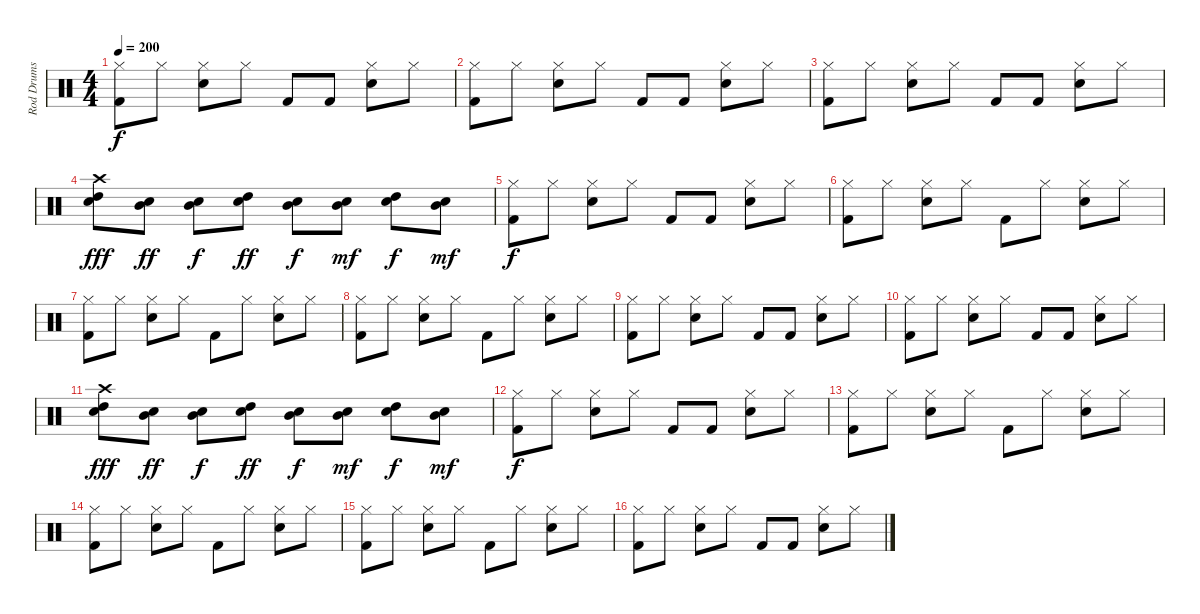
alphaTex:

\track ("Rod Drums" "Rod Drums") {instrument percussion}
\staff {score}
\articulation defaults
\ts (4 4)
\tempo 200
\clef neutral
\ks c
("Kick (hit) 2" "Hi-Hat (closed)").8{dy f} "Hi-Hat (closed)".8 ("Snare (hit) 2" "Hi-Hat (closed)").8 "Hi-Hat (closed)".8 "Kick (hit) 2".8 "Kick (hit) 2".8 ("Snare (hit) 2" "Hi-Hat (closed)").8 "Hi-Hat (closed)".8 |
("Kick (hit) 2" "Hi-Hat (closed)").8 "Hi-Hat (closed)".8 ("Snare (hit) 2" "Hi-Hat (closed)").8 "Hi-Hat (closed)".8 "Kick (hit) 2".8 "Kick (hit) 2".8 ("Snare (hit) 2" "Hi-Hat (closed)").8 "Hi-Hat (closed)".8 |
("Kick (hit) 2" "Hi-Hat (closed)").8 "Hi-Hat (closed)".8 ("Snare (hit) 2" "Hi-Hat (closed)").8 "Hi-Hat (closed)".8 "Kick (hit) 2".8 "Kick (hit) 2".8 ("Snare (hit) 2" "Hi-Hat (closed)").8 "Hi-Hat (closed)".8 |
("Snare (hit) 2" "High Tom (hit)" "Crash high (hit)").8{dy fff} ("Snare (hit) 2" "Mid Tom (hit)").8{dy ff} ("Snare (hit) 2" "Mid Tom (hit)").8{dy f} ("Snare (hit) 2" "High Tom (hit)").8{dy ff} ("Snare (hit) 2" "Mid Tom (hit)").8{dy f} ("Snare (hit) 2" "Mid Tom (hit)").8{dy mf} ("Snare (hit) 2" "High Tom (hit)").8{dy f} ("Snare (hit) 2" "Mid Tom (hit)").8{dy mf} |
("Kick (hit) 2" "Hi-Hat (closed)").8{dy f} "Hi-Hat (closed)".8 ("Snare (hit) 2" "Hi-Hat (closed)").8 "Hi-Hat (closed)".8 "Kick (hit) 2".8 "Kick (hit) 2".8 ("Snare (hit) 2" "Hi-Hat (closed)").8 "Hi-Hat (closed)".8 |
("Kick (hit) 2" "Hi-Hat (closed)").8 "Hi-Hat (closed)".8 ("Snare (hit) 2" "Hi-Hat (closed)").8 "Hi-Hat (closed)".8 "Kick (hit) 2".8 "Hi-Hat (closed)".8 ("Snare (hit) 2" "Hi-Hat (closed)").8 "Hi-Hat (closed)".8 |
("Kick (hit) 2" "Hi-Hat (closed)").8 "Hi-Hat (closed)".8 ("Snare (hit) 2" "Hi-Hat (closed)").8 "Hi-Hat (closed)".8 "Kick (hit) 2".8 "Hi-Hat (closed)".8 ("Snare (hit) 2" "Hi-Hat (closed)").8 "Hi-Hat (closed)".8 |
("Kick (hit) 2" "Hi-Hat (closed)").8 "Hi-Hat (closed)".8 ("Snare (hit) 2" "Hi-Hat (closed)").8 "Hi-Hat (closed)".8 "Kick (hit) 2".8 "Hi-Hat (closed)".8 ("Snare (hit) 2" "Hi-Hat (closed)").8 "Hi-Hat (closed)".8 |
("Kick (hit) 2" "Hi-Hat (closed)").8 "Hi-Hat (closed)".8 ("Snare (hit) 2" "Hi-Hat (closed)").8 "Hi-Hat (closed)".8 "Kick (hit) 2".8 "Kick (hit) 2".8 ("Snare (hit) 2" "Hi-Hat (closed)").8 "Hi-Hat (closed)".8 |
("Kick (hit) 2" "Hi-Hat (closed)").8 "Hi-Hat (closed)".8 ("Snare (hit) 2" "Hi-Hat (closed)").8 "Hi-Hat (closed)".8 "Kick (hit) 2".8 "Kick (hit) 2".8 ("Snare (hit) 2" "Hi-Hat (closed)").8 "Hi-Hat (closed)".8 |
("Snare (hit) 2" "High Tom (hit)" "Crash high (hit)").8{dy fff} ("Snare (hit) 2" "Mid Tom (hit)").8{dy ff} ("Snare (hit) 2" "Mid Tom (hit)").8{dy f} ("Snare (hit) 2" "High Tom (hit)").8{dy ff} ("Snare (hit) 2" "Mid Tom (hit)").8{dy f} ("Snare (hit) 2" "Mid Tom (hit)").8{dy mf} ("Snare (hit) 2" "High Tom (hit)").8{dy f} ("Snare (hit) 2" "Mid Tom (hit)").8{dy mf} |
("Kick (hit) 2" "Hi-Hat (closed)").8{dy f} "Hi-Hat (closed)".8 ("Snare (hit) 2" "Hi-Hat (closed)").8 "Hi-Hat (closed)".8 "Kick (hit) 2".8 "Kick (hit) 2".8 ("Snare (hit) 2" "Hi-Hat (closed)").8 "Hi-Hat (closed)".8 |
("Kick (hit) 2" "Hi-Hat (closed)").8 "Hi-Hat (closed)".8 ("Snare (hit) 2" "Hi-Hat (closed)").8 "Hi-Hat (closed)".8 "Kick (hit) 2".8 "Hi-Hat (closed)".8 ("Snare (hit) 2" "Hi-Hat (closed)").8 "Hi-Hat (closed)".8 |
("Kick (hit) 2" "Hi-Hat (closed)").8 "Hi-Hat (closed)".8 ("Snare (hit) 2" "Hi-Hat (closed)").8 "Hi-Hat (closed)".8 "Kick (hit) 2".8 "Hi-Hat (closed)".8 ("Snare (hit) 2" "Hi-Hat (closed)").8 "Hi-Hat (closed)".8 |
("Kick (hit) 2" "Hi-Hat (closed)").8 "Hi-Hat (closed)".8 ("Snare (hit) 2" "Hi-Hat (closed)").8 "Hi-Hat (closed)".8 "Kick (hit) 2".8 "Hi-Hat (closed)".8 ("Snare (hit) 2" "Hi-Hat (closed)").8 "Hi-Hat (closed)".8 |
("Kick (hit) 2" "Hi-Hat (closed)").8 "Hi-Hat (closed)".8 ("Snare (hit) 2" "Hi-Hat (closed)").8 "Hi-Hat (closed)".8 "Kick (hit) 2".8 "Kick (hit) 2".8 ("Snare (hit) 2" "Hi-Hat (closed)").8 "Hi-Hat (closed)".8
